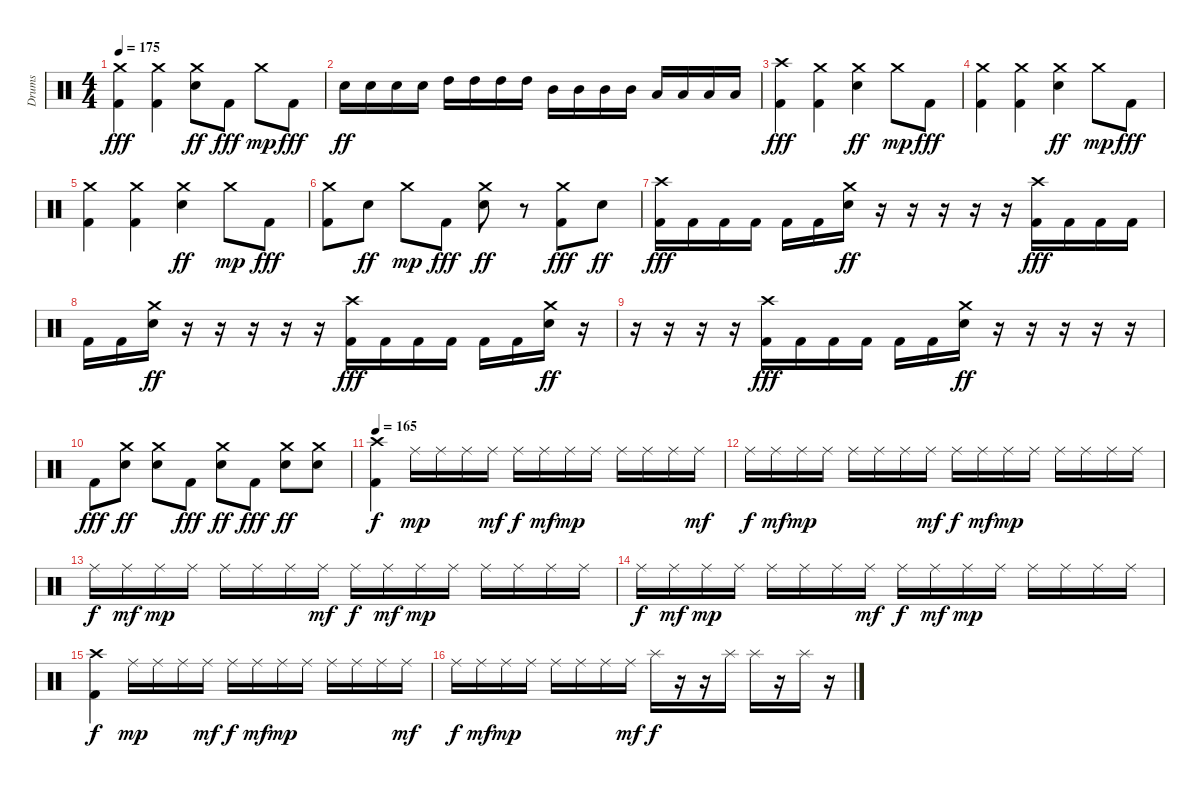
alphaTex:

\track ("Drums" "Drums") {instrument percussion}
\staff {score}
\articulation defaults
\ts (4 4)
\tempo 175
\clef neutral
\ks c
("Crash medium (hit)" "Kick (hit) 2").4{dy fff} ("Crash medium (hit)" "Kick (hit) 2").4 ("Crash medium (hit)" "Snare (hit) 2").8{dy ff} "Kick (hit) 2".8{dy fff} "Crash medium (hit)".8{dy mp} "Kick (hit) 2".8{dy fff} |
"Snare (hit) 2".16{dy ff} "Snare (hit) 2".16 "Snare (hit) 2".16 "Snare (hit) 2".16 "High Tom (hit)".16 "High Tom (hit)".16 "High Tom (hit)".16 "High Tom (hit)".16 "Mid Tom (hit)".16 "Mid Tom (hit)".16 "Mid Tom (hit)".16 "Mid Tom (hit)".16 "Low Tom (hit)".16 "Low Tom (hit)".16 "Low Tom (hit)".16 "Low Tom (hit)".16 |
("Crash high (hit)" "Kick (hit) 2").4{dy fff} ("Crash medium (hit)" "Kick (hit) 2").4 ("Crash medium (hit)" "Snare (hit) 2").4{dy ff} "Crash medium (hit)".8{dy mp} "Kick (hit) 2".8{dy fff} |
("Crash medium (hit)" "Kick (hit) 2").4 ("Crash medium (hit)" "Kick (hit) 2").4 ("Crash medium (hit)" "Snare (hit) 2").4{dy ff} "Crash medium (hit)".8{dy mp} "Kick (hit) 2".8{dy fff} |
("Crash medium (hit)" "Kick (hit) 2").4 ("Crash medium (hit)" "Kick (hit) 2").4 ("Crash medium (hit)" "Snare (hit) 2").4{dy ff} "Crash medium (hit)".8{dy mp} "Kick (hit) 2".8{dy fff} |
("Crash medium (hit)" "Kick (hit) 2").8 "Snare (hit) 2".8{dy ff} "Crash medium (hit)".8{dy mp} "Kick (hit) 2".8{dy fff} ("Crash medium (hit)" "Snare (hit) 2").8{dy ff} r.8 ("Crash medium (hit)" "Kick (hit) 2").8{dy fff} "Snare (hit) 2".8{dy ff} |
("Crash high (hit)" "Kick (hit) 2").16{dy fff} "Kick (hit) 2".16 "Kick (hit) 2".16 "Kick (hit) 2".16 "Kick (hit) 2".16 "Kick (hit) 2".16 ("Crash medium (hit)" "Snare (hit) 2").16{dy ff} r.16 r.16 r.16 r.16 r.16 ("Crash high (hit)" "Kick (hit) 2").16{dy fff} "Kick (hit) 2".16 "Kick (hit) 2".16 "Kick (hit) 2".16 |
"Kick (hit) 2".16 "Kick (hit) 2".16 ("Crash medium (hit)" "Snare (hit) 2").16{dy ff} r.16 r.16 r.16 r.16 r.16 ("Crash high (hit)" "Kick (hit) 2").16{dy fff} "Kick (hit) 2".16 "Kick (hit) 2".16 "Kick (hit) 2".16 "Kick (hit) 2".16 "Kick (hit) 2".16 ("Crash medium (hit)" "Snare (hit) 2").16{dy ff} r.16 |
r.16 r.16 r.16 r.16 ("Crash high (hit)" "Kick (hit) 2").16{dy fff} "Kick (hit) 2".16 "Kick (hit) 2".16 "Kick (hit) 2".16 "Kick (hit) 2".16 "Kick (hit) 2".16 ("Crash medium (hit)" "Snare (hit) 2").16{dy ff} r.16 r.16 r.16 r.16 r.16 |
"Kick (hit) 2".8{dy fff} ("Crash medium (hit)" "Snare (hit) 2").8{dy ff} ("Crash medium (hit)" "Snare (hit) 2").8 "Kick (hit) 2".8{dy fff} ("Crash medium (hit)" "Snare (hit) 2").8{dy ff} "Kick (hit) 2".8{dy fff} ("Crash medium (hit)" "Snare (hit) 2").8{dy ff} ("Crash medium (hit)" "Snare (hit) 2").8 |
\tempo 165
("Crash high (hit)" "Kick (hit) 2").4{dy f} "Ride (middle)".16{dy mp} "Ride (middle)".16 "Ride (middle)".16 "Ride (middle)".16{dy mf} "Ride (middle)".16{dy f} "Ride (middle)".16{dy mf} "Ride (middle)".16{dy mp} "Ride (middle)".16 "Ride (middle)".16 "Ride (middle)".16 "Ride (middle)".16 "Ride (middle)".16{dy mf} |
"Ride (middle)".16{dy f} "Ride (middle)".16{dy mf} "Ride (middle)".16{dy mp} "Ride (middle)".16 "Ride (middle)".16 "Ride (middle)".16 "Ride (middle)".16 "Ride (middle)".16{dy mf} "Ride (middle)".16{dy f} "Ride (middle)".16{dy mf} "Ride (middle)".16{dy mp} "Ride (middle)".16 "Ride (middle)".16 "Ride (middle)".16 "Ride (middle)".16 "Ride (middle)".16 |
"Ride (middle)".16{dy f} "Ride (middle)".16{dy mf} "Ride (middle)".16{dy mp} "Ride (middle)".16 "Ride (middle)".16 "Ride (middle)".16 "Ride (middle)".16 "Ride (middle)".16{dy mf} "Ride (middle)".16{dy f} "Ride (middle)".16{dy mf} "Ride (middle)".16{dy mp} "Ride (middle)".16 "Ride (middle)".16 "Ride (middle)".16 "Ride (middle)".16 "Ride (middle)".16 |
"Ride (middle)".16{dy f} "Ride (middle)".16{dy mf} "Ride (middle)".16{dy mp} "Ride (middle)".16 "Ride (middle)".16 "Ride (middle)".16 "Ride (middle)".16 "Ride (middle)".16{dy mf} "Ride (middle)".16{dy f} "Ride (middle)".16{dy mf} "Ride (middle)".16{dy mp} "Ride (middle)".16 "Ride (middle)".16 "Ride (middle)".16 "Ride (middle)".16 "Ride (middle)".16 |
("Crash high (hit)" "Kick (hit) 2").4{dy f} "Ride (middle)".16{dy mp} "Ride (middle)".16 "Ride (middle)".16 "Ride (middle)".16{dy mf} "Ride (middle)".16{dy f} "Ride (middle)".16{dy mf} "Ride (middle)".16{dy mp} "Ride (middle)".16 "Ride (middle)".16 "Ride (middle)".16 "Ride (middle)".16 "Ride (middle)".16{dy mf} |
"Ride (middle)".16{dy f} "Ride (middle)".16{dy mf} "Ride (middle)".16{dy mp} "Ride (middle)".16 "Ride (middle)".16 "Ride (middle)".16 "Ride (middle)".16 "Ride (middle)".16{dy mf} "Splash (hit)".16{dy f} r.16 r.16 "Splash (hit)".16 "Splash (hit)".16 r.16 "Splash (hit)".16 r.16
